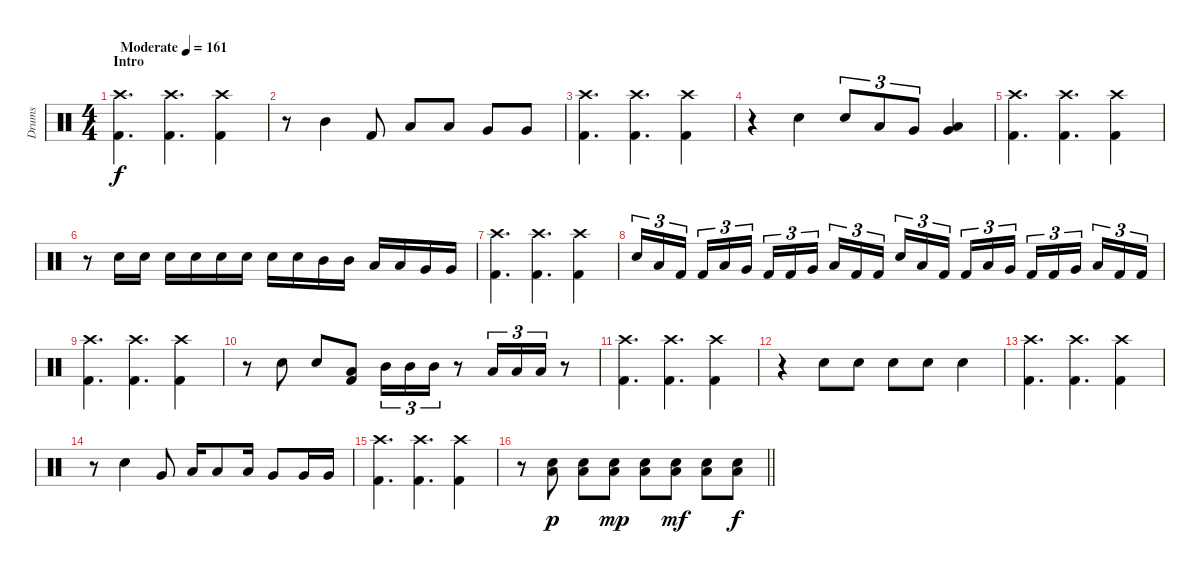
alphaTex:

\track ("Drums" "Drums") {instrument percussion}
\staff {score}
\articulation defaults
\ts (4 4)
\section ("" "Intro")
\tempo (161 "Moderate")
\clef neutral
\ks c
("Crash high (hit)" "Kick (hit) 2").4{d dy f} ("Crash high (hit)" "Kick (hit) 2").4{d} ("Crash high (hit)" "Kick (hit) 2").4 |
r.8 "Mid Tom (hit)".4 "Kick (hit) 2".8 "Low Tom (hit)".8 "Low Tom (hit)".8 "Very Low Tom (hit)".8 "Very Low Tom (hit)".8 |
("Crash high (hit)" "Kick (hit) 2").4{d} ("Crash high (hit)" "Kick (hit) 2").4{d} ("Crash high (hit)" "Kick (hit) 2").4 |
r.4 "Snare (hit) 2".4 "Snare (hit) 2".8{tu (3 2)} "Low Tom (hit)".8{tu (3 2)} "Very Low Tom (hit)".8{tu (3 2)} ("Low Floor Tom (hit)" "Very Low Tom (hit)").4 |
("Crash high (hit)" "Kick (hit) 2").4{d} ("Crash high (hit)" "Kick (hit) 2").4{d} ("Crash high (hit)" "Kick (hit) 2").4 |
r.8 "Snare (hit) 2".16 "Snare (hit) 2".16 "Snare (hit) 2".16 "Snare (hit) 2".16 "Snare (hit) 2".16 "Snare (hit) 2".16 "Snare (hit) 2".16 "Snare (hit) 2".16 "Mid Tom (hit)".16 "Mid Tom (hit)".16 "Low Tom (hit)".16 "Low Tom (hit)".16 "Very Low Tom (hit)".16 "Very Low Tom (hit)".16 |
("Crash high (hit)" "Kick (hit) 2").4{d} ("Crash high (hit)" "Kick (hit) 2").4{d} ("Crash high (hit)" "Kick (hit) 2").4 |
"Snare (hit) 2".16{tu (3 2)} "Low Tom (hit)".16{tu (3 2)} "Kick (hit) 2".16{tu (3 2) beam splitsecondary} "Kick (hit) 2".16{tu (3 2)} "Low Tom (hit)".16{tu (3 2)} "Very Low Tom (hit)".16{tu (3 2)} "Kick (hit) 2".16{tu (3 2)} "Kick (hit) 2".16{tu (3 2)} "Very Low Tom (hit)".16{tu (3 2) beam splitsecondary} "Low Floor Tom (hit)".16{tu (3 2)} "Kick (hit) 2".16{tu (3 2)} "Kick (hit) 2".16{tu (3 2)} "Snare (hit) 2".16{tu (3 2)} "Low Tom (hit)".16{tu (3 2)} "Kick (hit) 2".16{tu (3 2) beam splitsecondary} "Kick (hit) 2".16{tu (3 2)} "Low Tom (hit)".16{tu (3 2)} "Very Low Tom (hit)".16{tu (3 2)} "Kick (hit) 2".16{tu (3 2)} "Kick (hit) 2".16{tu (3 2)} "Very Low Tom (hit)".16{tu (3 2) beam splitsecondary} "Low Floor Tom (hit)".16{tu (3 2)} "Kick (hit) 2".16{tu (3 2)} "Kick (hit) 2".16{tu (3 2)} |
("Crash high (hit)" "Kick (hit) 2").4{d} ("Crash high (hit)" "Kick (hit) 2").4{d} ("Crash high (hit)" "Kick (hit) 2").4 |
r.8 "Snare (hit) 2".8 "Snare (hit) 2".8 ("Low Tom (hit)" "Kick (hit) 2").8 "Mid Tom (hit)".16{tu (3 2)} "Mid Tom (hit)".16{tu (3 2)} "Mid Tom (hit)".16{tu (3 2)} r.8 "Low Tom (hit)".16{tu (3 2)} "Low Tom (hit)".16{tu (3 2)} "Low Tom (hit)".16{tu (3 2)} r.8 |
("Crash high (hit)" "Kick (hit) 2").4{d} ("Crash high (hit)" "Kick (hit) 2").4{d} ("Crash high (hit)" "Kick (hit) 2").4 |
r.4 "Snare (hit) 2".8 "Snare (hit) 2".8 "Snare (hit) 2".8 "Snare (hit) 2".8 "Snare (hit) 2".4 |
("Crash high (hit)" "Kick (hit) 2").4{d} ("Crash high (hit)" "Kick (hit) 2").4{d} ("Crash high (hit)" "Kick (hit) 2").4 |
r.8 "Snare (hit) 2".4 "Very Low Tom (hit)".8 "Low Tom (hit)".16 "Low Tom (hit)".8 "Low Tom (hit)".16 "Very Low Tom (hit)".8 "Very Low Tom (hit)".16 "Very Low Tom (hit)".16 |
("Crash high (hit)" "Kick (hit) 2").4{d} ("Crash high (hit)" "Kick (hit) 2").4{d} ("Crash high (hit)" "Kick (hit) 2").4 |
\barLineRight lightlight
r.8 ("Snare (hit) 2" "Low Floor Tom (hit)").8{dy p} ("Snare (hit) 2" "Low Floor Tom (hit)").8 ("Snare (hit) 2" "Low Floor Tom (hit)").8{dy mp} ("Snare (hit) 2" "Low Floor Tom (hit)").8 ("Snare (hit) 2" "Low Floor Tom (hit)").8{dy mf} ("Snare (hit) 2" "Low Floor Tom (hit)").8 ("Snare (hit) 2" "Low Floor Tom (hit)").8{dy f}
